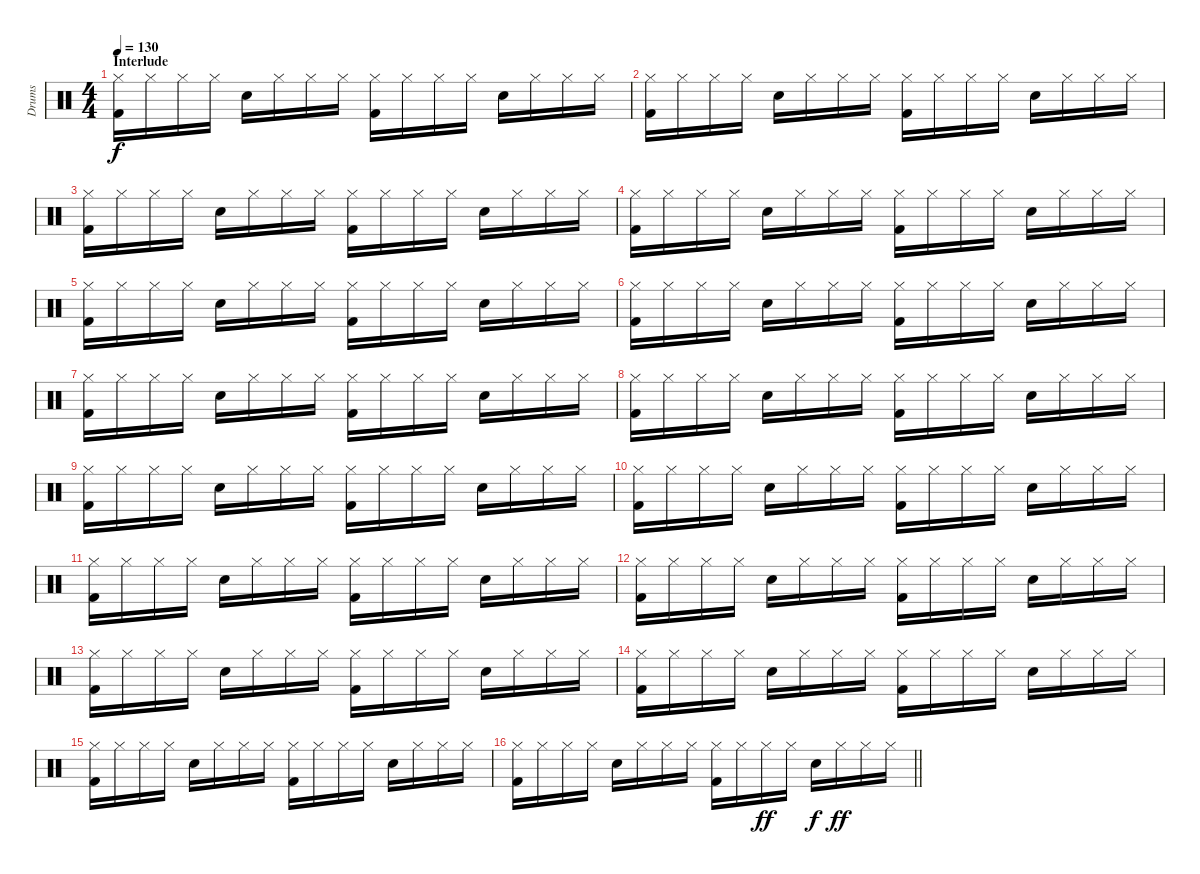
\track ("Drums" "Drums") {instrument percussion}
\staff {score}
\articulation defaults
\ts (4 4)
\section ("" "Interlude")
\tempo 130
\clef neutral
\ks c
("Hi-Hat (closed)" "Kick (hit) 2").16{dy f} "Hi-Hat (closed)".16 "Hi-Hat (closed)".16 "Hi-Hat (closed)".16 "Snare (hit) 2".16 "Hi-Hat (closed)".16 "Hi-Hat (closed)".16 "Hi-Hat (closed)".16 ("Hi-Hat (closed)" "Kick (hit) 2").16 "Hi-Hat (closed)".16 "Hi-Hat (closed)".16 "Hi-Hat (closed)".16 "Snare (hit) 2".16 "Hi-Hat (closed)".16 "Hi-Hat (closed)".16 "Hi-Hat (closed)".16 |
("Hi-Hat (closed)" "Kick (hit) 2").16 "Hi-Hat (closed)".16 "Hi-Hat (closed)".16 "Hi-Hat (closed)".16 "Snare (hit) 2".16 "Hi-Hat (closed)".16 "Hi-Hat (closed)".16 "Hi-Hat (closed)".16 ("Hi-Hat (closed)" "Kick (hit) 2").16 "Hi-Hat (closed)".16 "Hi-Hat (closed)".16 "Hi-Hat (closed)".16 "Snare (hit) 2".16 "Hi-Hat (closed)".16 "Hi-Hat (closed)".16 "Hi-Hat (closed)".16 |
("Hi-Hat (closed)" "Kick (hit) 2").16 "Hi-Hat (closed)".16 "Hi-Hat (closed)".16 "Hi-Hat (closed)".16 "Snare (hit) 2".16 "Hi-Hat (closed)".16 "Hi-Hat (closed)".16 "Hi-Hat (closed)".16 ("Hi-Hat (closed)" "Kick (hit) 2").16 "Hi-Hat (closed)".16 "Hi-Hat (closed)".16 "Hi-Hat (closed)".16 "Snare (hit) 2".16 "Hi-Hat (closed)".16 "Hi-Hat (closed)".16 "Hi-Hat (closed)".16 |
("Hi-Hat (closed)" "Kick (hit) 2").16 "Hi-Hat (closed)".16 "Hi-Hat (closed)".16 "Hi-Hat (closed)".16 "Snare (hit) 2".16 "Hi-Hat (closed)".16 "Hi-Hat (closed)".16 "Hi-Hat (closed)".16 ("Hi-Hat (closed)" "Kick (hit) 2").16 "Hi-Hat (closed)".16 "Hi-Hat (closed)".16 "Hi-Hat (closed)".16 "Snare (hit) 2".16 "Hi-Hat (closed)".16 "Hi-Hat (closed)".16 "Hi-Hat (closed)".16 |
("Hi-Hat (closed)" "Kick (hit) 2").16 "Hi-Hat (closed)".16 "Hi-Hat (closed)".16 "Hi-Hat (closed)".16 "Snare (hit) 2".16 "Hi-Hat (closed)".16 "Hi-Hat (closed)".16 "Hi-Hat (closed)".16 ("Hi-Hat (closed)" "Kick (hit) 2").16 "Hi-Hat (closed)".16 "Hi-Hat (closed)".16 "Hi-Hat (closed)".16 "Snare (hit) 2".16 "Hi-Hat (closed)".16 "Hi-Hat (closed)".16 "Hi-Hat (closed)".16 |
("Hi-Hat (closed)" "Kick (hit) 2").16 "Hi-Hat (closed)".16 "Hi-Hat (closed)".16 "Hi-Hat (closed)".16 "Snare (hit) 2".16 "Hi-Hat (closed)".16 "Hi-Hat (closed)".16 "Hi-Hat (closed)".16 ("Hi-Hat (closed)" "Kick (hit) 2").16 "Hi-Hat (closed)".16 "Hi-Hat (closed)".16 "Hi-Hat (closed)".16 "Snare (hit) 2".16 "Hi-Hat (closed)".16 "Hi-Hat (closed)".16 "Hi-Hat (closed)".16 |
("Hi-Hat (closed)" "Kick (hit) 2").16 "Hi-Hat (closed)".16 "Hi-Hat (closed)".16 "Hi-Hat (closed)".16 "Snare (hit) 2".16 "Hi-Hat (closed)".16 "Hi-Hat (closed)".16 "Hi-Hat (closed)".16 ("Hi-Hat (closed)" "Kick (hit) 2").16 "Hi-Hat (closed)".16 "Hi-Hat (closed)".16 "Hi-Hat (closed)".16 "Snare (hit) 2".16 "Hi-Hat (closed)".16 "Hi-Hat (closed)".16 "Hi-Hat (closed)".16 |
("Hi-Hat (closed)" "Kick (hit) 2").16 "Hi-Hat (closed)".16 "Hi-Hat (closed)".16 "Hi-Hat (closed)".16 "Snare (hit) 2".16 "Hi-Hat (closed)".16 "Hi-Hat (closed)".16 "Hi-Hat (closed)".16 ("Hi-Hat (closed)" "Kick (hit) 2").16 "Hi-Hat (closed)".16 "Hi-Hat (closed)".16 "Hi-Hat (closed)".16 "Snare (hit) 2".16 "Hi-Hat (closed)".16 "Hi-Hat (closed)".16 "Hi-Hat (closed)".16 |
("Hi-Hat (closed)" "Kick (hit) 2").16 "Hi-Hat (closed)".16 "Hi-Hat (closed)".16 "Hi-Hat (closed)".16 "Snare (hit) 2".16 "Hi-Hat (closed)".16 "Hi-Hat (closed)".16 "Hi-Hat (closed)".16 ("Hi-Hat (closed)" "Kick (hit) 2").16 "Hi-Hat (closed)".16 "Hi-Hat (closed)".16 "Hi-Hat (closed)".16 "Snare (hit) 2".16 "Hi-Hat (closed)".16 "Hi-Hat (closed)".16 "Hi-Hat (closed)".16 |
("Hi-Hat (closed)" "Kick (hit) 2").16 "Hi-Hat (closed)".16 "Hi-Hat (closed)".16 "Hi-Hat (closed)".16 "Snare (hit) 2".16 "Hi-Hat (closed)".16 "Hi-Hat (closed)".16 "Hi-Hat (closed)".16 ("Hi-Hat (closed)" "Kick (hit) 2").16 "Hi-Hat (closed)".16 "Hi-Hat (closed)".16 "Hi-Hat (closed)".16 "Snare (hit) 2".16 "Hi-Hat (closed)".16 "Hi-Hat (closed)".16 "Hi-Hat (closed)".16 |
("Hi-Hat (closed)" "Kick (hit) 2").16 "Hi-Hat (closed)".16 "Hi-Hat (closed)".16 "Hi-Hat (closed)".16 "Snare (hit) 2".16 "Hi-Hat (closed)".16 "Hi-Hat (closed)".16 "Hi-Hat (closed)".16 ("Hi-Hat (closed)" "Kick (hit) 2").16 "Hi-Hat (closed)".16 "Hi-Hat (closed)".16 "Hi-Hat (closed)".16 "Snare (hit) 2".16 "Hi-Hat (closed)".16 "Hi-Hat (closed)".16 "Hi-Hat (closed)".16 |
("Hi-Hat (closed)" "Kick (hit) 2").16 "Hi-Hat (closed)".16 "Hi-Hat (closed)".16 "Hi-Hat (closed)".16 "Snare (hit) 2".16 "Hi-Hat (closed)".16 "Hi-Hat (closed)".16 "Hi-Hat (closed)".16 ("Hi-Hat (closed)" "Kick (hit) 2").16 "Hi-Hat (closed)".16 "Hi-Hat (closed)".16 "Hi-Hat (closed)".16 "Snare (hit) 2".16 "Hi-Hat (closed)".16 "Hi-Hat (closed)".16 "Hi-Hat (closed)".16 |
("Hi-Hat (closed)" "Kick (hit) 2").16 "Hi-Hat (closed)".16 "Hi-Hat (closed)".16 "Hi-Hat (closed)".16 "Snare (hit) 2".16 "Hi-Hat (closed)".16 "Hi-Hat (closed)".16 "Hi-Hat (closed)".16 ("Hi-Hat (closed)" "Kick (hit) 2").16 "Hi-Hat (closed)".16 "Hi-Hat (closed)".16 "Hi-Hat (closed)".16 "Snare (hit) 2".16 "Hi-Hat (closed)".16 "Hi-Hat (closed)".16 "Hi-Hat (closed)".16 |
("Hi-Hat (closed)" "Kick (hit) 2").16 "Hi-Hat (closed)".16 "Hi-Hat (closed)".16 "Hi-Hat (closed)".16 "Snare (hit) 2".16 "Hi-Hat (closed)".16 "Hi-Hat (closed)".16 "Hi-Hat (closed)".16 ("Hi-Hat (closed)" "Kick (hit) 2").16 "Hi-Hat (closed)".16 "Hi-Hat (closed)".16 "Hi-Hat (closed)".16 "Snare (hit) 2".16 "Hi-Hat (closed)".16 "Hi-Hat (closed)".16 "Hi-Hat (closed)".16 |
("Hi-Hat (closed)" "Kick (hit) 2").16 "Hi-Hat (closed)".16 "Hi-Hat (closed)".16 "Hi-Hat (closed)".16 "Snare (hit) 2".16 "Hi-Hat (closed)".16 "Hi-Hat (closed)".16 "Hi-Hat (closed)".16 ("Hi-Hat (closed)" "Kick (hit) 2").16 "Hi-Hat (closed)".16 "Hi-Hat (closed)".16 "Hi-Hat (closed)".16 "Snare (hit) 2".16 "Hi-Hat (closed)".16 "Hi-Hat (closed)".16 "Hi-Hat (closed)".16 |
\barLineRight lightlight
("Hi-Hat (closed)" "Kick (hit) 2").16 "Hi-Hat (closed)".16 "Hi-Hat (closed)".16 "Hi-Hat (closed)".16 "Snare (hit) 2".16 "Hi-Hat (closed)".16 "Hi-Hat (closed)".16 "Hi-Hat (closed)".16 ("Hi-Hat (closed)" "Kick (hit) 2").16 "Hi-Hat (closed)".16 "Hi-Hat (closed)".16{dy ff} "Hi-Hat (closed)".16 "Snare (hit) 2".16{dy f} "Hi-Hat (closed)".16{dy ff} "Hi-Hat (closed)".16 "Hi-Hat (closed)".16
